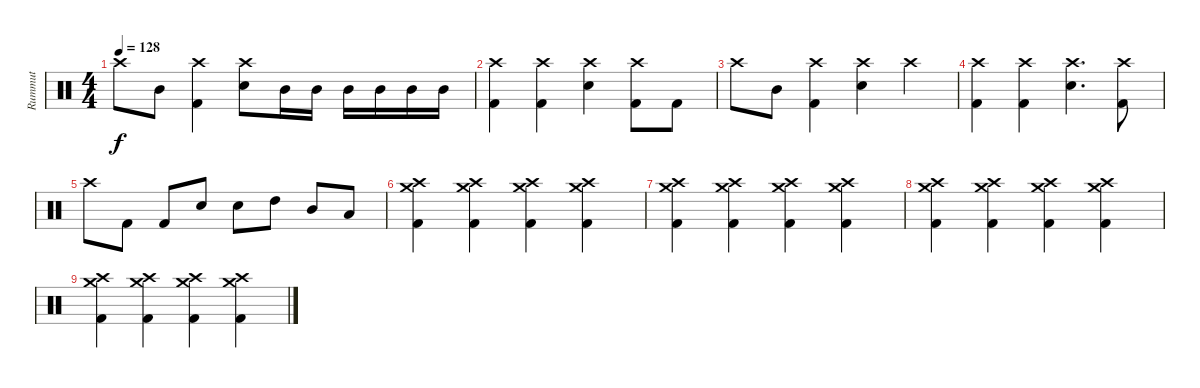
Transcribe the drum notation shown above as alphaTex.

\track ("Rummut" "Rummut") {instrument percussion}
\staff {score}
\articulation defaults
\ts (4 4)
\tempo 128
\clef neutral
\ks aminor "Crash high (hit)".8{dy f} "Mid Tom (hit)".8
("Crash high (hit)" "Kick (hit) 2").4 ("Crash high (hit)" "Electric Snare (hit)").8 "Mid Tom (hit)".16 "Mid Tom (hit)".16 "Mid Tom (hit)".16 "Mid Tom (hit)".16 "Mid Tom (hit)".16 "Mid Tom (hit)".16 |
("Crash high (hit)" "Kick (hit) 2").4 ("Crash high (hit)" "Kick (hit) 2").4 ("Crash high (hit)" "Electric Snare (hit)").4 ("Crash high (hit)" "Kick (hit) 2").8 "Kick (hit) 2".8 |
"Crash high (hit)".8 "Mid Tom (hit)".8 ("Crash high (hit)" "Kick (hit) 2").4 ("Crash high (hit)" "Electric Snare (hit)").4 "Crash high (hit)".4 |
("Crash high (hit)" "Kick (hit) 2").4 ("Crash high (hit)" "Kick (hit) 2").4 ("Crash high (hit)" "Electric Snare (hit)").4{d} ("Crash high (hit)" "Kick (hit) 2").8 |
"Crash high (hit)".8 "Kick (hit) 2".8 "Kick (hit) 2".8 "Electric Snare (hit)".8 "Electric Snare (hit)".8 "High Tom (hit)".8 "Mid Tom (hit)".8 "Low Tom (hit)".8 |
("Crash high (hit)" "Crash medium (hit)" "Kick (hit) 2").4 ("Crash high (hit)" "Crash medium (hit)" "Kick (hit) 2").4 ("Crash high (hit)" "Crash medium (hit)" "Kick (hit) 2").4 ("Crash high (hit)" "Crash medium (hit)" "Kick (hit) 2").4 |
("Crash high (hit)" "Crash medium (hit)" "Kick (hit) 2").4 ("Crash high (hit)" "Crash medium (hit)" "Kick (hit) 2").4 ("Crash high (hit)" "Crash medium (hit)" "Kick (hit) 2").4 ("Crash high (hit)" "Crash medium (hit)" "Kick (hit) 2").4 |
("Crash high (hit)" "Crash medium (hit)" "Kick (hit) 2").4 ("Crash high (hit)" "Crash medium (hit)" "Kick (hit) 2").4 ("Crash high (hit)" "Crash medium (hit)" "Kick (hit) 2").4 ("Crash high (hit)" "Crash medium (hit)" "Kick (hit) 2").4 |
("Crash high (hit)" "Crash medium (hit)" "Kick (hit) 2").4 ("Crash high (hit)" "Crash medium (hit)" "Kick (hit) 2").4 ("Crash high (hit)" "Crash medium (hit)" "Kick (hit) 2").4 ("Crash high (hit)" "Crash medium (hit)" "Kick (hit) 2").4
